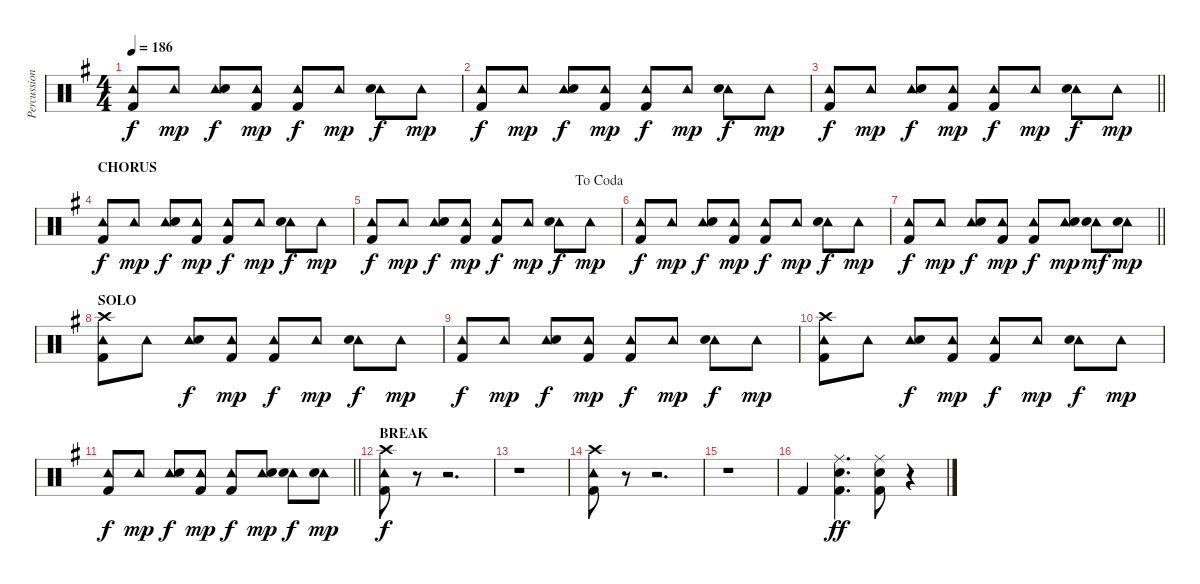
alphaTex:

\track ("Percussion" "Percussion") {instrument percussion}
\staff {score}
\articulation defaults
\ts (4 4)
\tempo 186
\clef neutral
\ks g
("Tambourine (hit)" "Kick (hit) 2").8{dy f} "Tambourine (hit)".8{dy mp} ("Tambourine (hit)" "Electric Snare (hit)").8{dy f} ("Tambourine (hit)" "Kick (hit) 2").8{dy mp} ("Tambourine (hit)" "Kick (hit) 2").8{dy f} "Tambourine (hit)".8{dy mp} ("Tambourine (hit)" "Electric Snare (hit)").8{dy f} "Tambourine (hit)".8{dy mp} |
("Tambourine (hit)" "Kick (hit) 2").8{dy f} "Tambourine (hit)".8{dy mp} ("Tambourine (hit)" "Electric Snare (hit)").8{dy f} ("Tambourine (hit)" "Kick (hit) 2").8{dy mp} ("Tambourine (hit)" "Kick (hit) 2").8{dy f} "Tambourine (hit)".8{dy mp} ("Tambourine (hit)" "Electric Snare (hit)").8{dy f} "Tambourine (hit)".8{dy mp} |
\barLineRight lightlight
("Tambourine (hit)" "Kick (hit) 2").8{dy f} "Tambourine (hit)".8{dy mp} ("Tambourine (hit)" "Electric Snare (hit)").8{dy f} ("Tambourine (hit)" "Kick (hit) 2").8{dy mp} ("Tambourine (hit)" "Kick (hit) 2").8{dy f} "Tambourine (hit)".8{dy mp} ("Tambourine (hit)" "Electric Snare (hit)").8{dy f} "Tambourine (hit)".8{dy mp} |
\section ("" "CHORUS")
("Tambourine (hit)" "Kick (hit) 2").8{dy f} "Tambourine (hit)".8{dy mp} ("Tambourine (hit)" "Electric Snare (hit)").8{dy f} ("Tambourine (hit)" "Kick (hit) 2").8{dy mp} ("Tambourine (hit)" "Kick (hit) 2").8{dy f} "Tambourine (hit)".8{dy mp} ("Tambourine (hit)" "Electric Snare (hit)").8{dy f} "Tambourine (hit)".8{dy mp} |
\jump dacoda
("Tambourine (hit)" "Kick (hit) 2").8{dy f} "Tambourine (hit)".8{dy mp} ("Tambourine (hit)" "Electric Snare (hit)").8{dy f} ("Tambourine (hit)" "Kick (hit) 2").8{dy mp} ("Tambourine (hit)" "Kick (hit) 2").8{dy f} "Tambourine (hit)".8{dy mp} ("Tambourine (hit)" "Electric Snare (hit)").8{dy f} "Tambourine (hit)".8{dy mp} |
("Tambourine (hit)" "Kick (hit) 2").8{dy f} "Tambourine (hit)".8{dy mp} ("Tambourine (hit)" "Electric Snare (hit)").8{dy f} ("Tambourine (hit)" "Kick (hit) 2").8{dy mp} ("Tambourine (hit)" "Kick (hit) 2").8{dy f} "Tambourine (hit)".8{dy mp} ("Tambourine (hit)" "Electric Snare (hit)").8{dy f} "Tambourine (hit)".8{dy mp} |
\barLineRight lightlight
("Tambourine (hit)" "Kick (hit) 2").8{dy f} "Tambourine (hit)".8{dy mp} ("Tambourine (hit)" "Electric Snare (hit)").8{dy f} ("Tambourine (hit)" "Kick (hit) 2").8{dy mp} ("Tambourine (hit)" "Kick (hit) 2").8{dy f} ("Tambourine (hit)" "Electric Snare (hit)").8{dy mp} ("Tambourine (hit)" "Electric Snare (hit)").8{dy mf} ("Tambourine (hit)" "Electric Snare (hit)").8{dy mp} |
\section ("" "SOLO")
("Crash high (hit)" "Tambourine (hit)" "Kick (hit) 2").8 "Tambourine (hit)".8 ("Tambourine (hit)" "Electric Snare (hit)").8{dy f} ("Tambourine (hit)" "Kick (hit) 2").8{dy mp} ("Tambourine (hit)" "Kick (hit) 2").8{dy f} "Tambourine (hit)".8{dy mp} ("Tambourine (hit)" "Electric Snare (hit)").8{dy f} "Tambourine (hit)".8{dy mp} |
("Tambourine (hit)" "Kick (hit) 2").8{dy f} "Tambourine (hit)".8{dy mp} ("Tambourine (hit)" "Electric Snare (hit)").8{dy f} ("Tambourine (hit)" "Kick (hit) 2").8{dy mp} ("Tambourine (hit)" "Kick (hit) 2").8{dy f} "Tambourine (hit)".8{dy mp} ("Tambourine (hit)" "Electric Snare (hit)").8{dy f} "Tambourine (hit)".8{dy mp} |
("Crash high (hit)" "Tambourine (hit)" "Kick (hit) 2").8 "Tambourine (hit)".8 ("Tambourine (hit)" "Electric Snare (hit)").8{dy f} ("Tambourine (hit)" "Kick (hit) 2").8{dy mp} ("Tambourine (hit)" "Kick (hit) 2").8{dy f} "Tambourine (hit)".8{dy mp} ("Tambourine (hit)" "Electric Snare (hit)").8{dy f} "Tambourine (hit)".8{dy mp} |
\barLineRight lightlight
("Tambourine (hit)" "Kick (hit) 2").8{dy f} "Tambourine (hit)".8{dy mp} ("Tambourine (hit)" "Electric Snare (hit)").8{dy f} ("Tambourine (hit)" "Kick (hit) 2").8{dy mp} ("Tambourine (hit)" "Kick (hit) 2").8{dy f} ("Tambourine (hit)" "Electric Snare (hit)").8{dy mp} ("Tambourine (hit)" "Electric Snare (hit)").8{dy f} ("Tambourine (hit)" "Electric Snare (hit)").8{dy mp} |
\section ("" "BREAK")
("Crash high (hit)" "Tambourine (hit)" "Kick (hit) 2").8{dy f} r.8 r.2{d} |
r.1 |
("Crash high (hit)" "Tambourine (hit)" "Kick (hit) 2").8 r.8 r.2{d} |
r.1 |
"Kick (hit) 2".4 ("Ride (middle)" "Electric Snare (hit)" "Kick (hit) 2").4{d dy ff} ("Ride (middle)" "Electric Snare (hit)" "Kick (hit) 2").8 r.4
